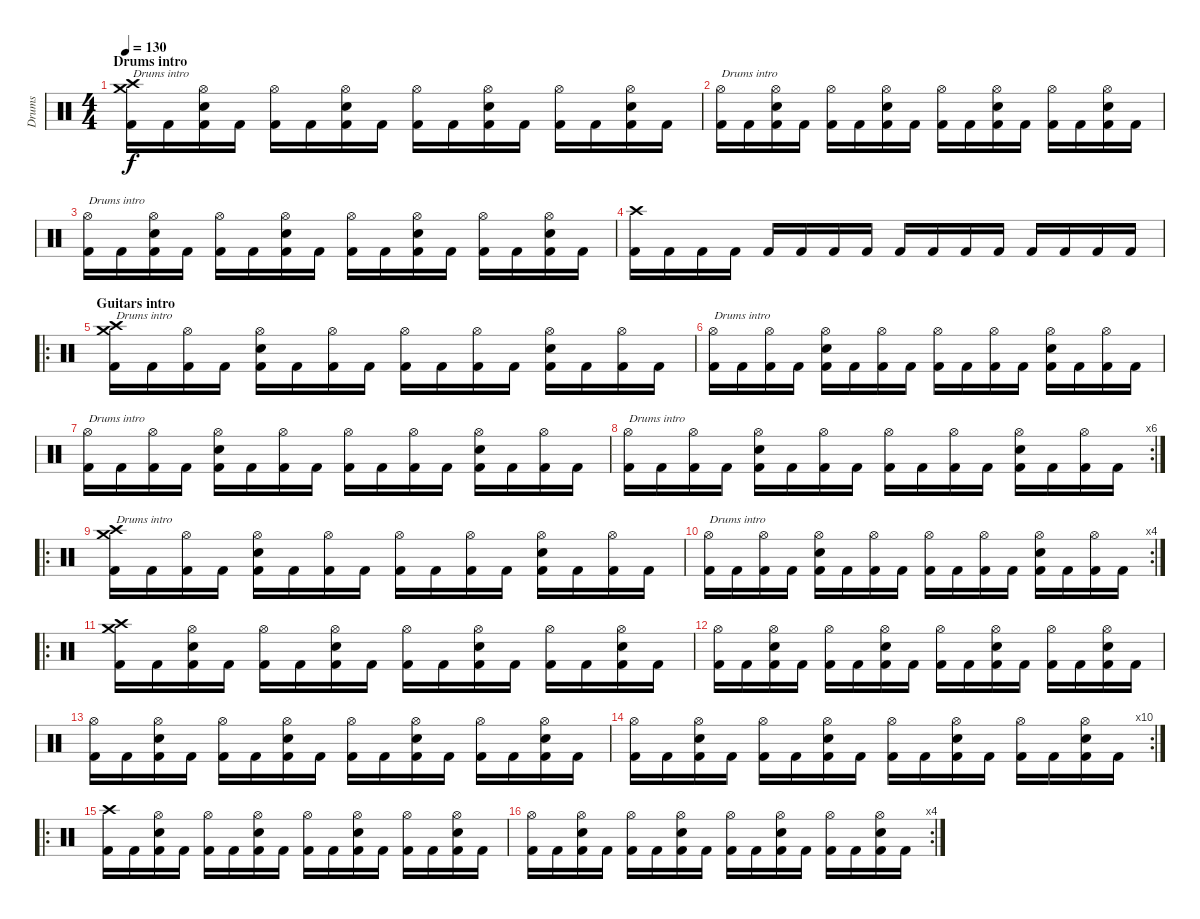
\track ("Drums" "Drums") {instrument percussion}
\staff {score}
\articulation defaults
\ts (4 4)
\section ("" "Drums intro")
\tempo 130
\clef neutral
\ks c
("Crash high (hit)" "Kick (hit) 2" "Crash medium (hit)").16{txt "Drums intro" dy f} "Kick (hit) 2".16 ("Kick (hit) 2" "Hi-Hat (open)" "Snare (hit) 2").16 "Kick (hit) 2".16 ("Kick (hit) 2" "Hi-Hat (open)").16 "Kick (hit) 2".16 ("Kick (hit) 2" "Hi-Hat (open)" "Snare (hit) 2").16 "Kick (hit) 2".16 ("Kick (hit) 2" "Hi-Hat (open)").16 "Kick (hit) 2".16 ("Kick (hit) 2" "Hi-Hat (open)" "Snare (hit) 2").16 "Kick (hit) 2".16 ("Kick (hit) 2" "Hi-Hat (open)").16 "Kick (hit) 2".16 ("Kick (hit) 2" "Hi-Hat (open)" "Snare (hit) 2").16 "Kick (hit) 2".16 |
("Kick (hit) 2" "Hi-Hat (open)").16{txt "Drums intro"} "Kick (hit) 2".16 ("Kick (hit) 2" "Hi-Hat (open)" "Snare (hit) 2").16 "Kick (hit) 2".16 ("Kick (hit) 2" "Hi-Hat (open)").16 "Kick (hit) 2".16 ("Kick (hit) 2" "Hi-Hat (open)" "Snare (hit) 2").16 "Kick (hit) 2".16 ("Kick (hit) 2" "Hi-Hat (open)").16 "Kick (hit) 2".16 ("Kick (hit) 2" "Hi-Hat (open)" "Snare (hit) 2").16 "Kick (hit) 2".16 ("Kick (hit) 2" "Hi-Hat (open)").16 "Kick (hit) 2".16 ("Kick (hit) 2" "Hi-Hat (open)" "Snare (hit) 2").16 "Kick (hit) 2".16 |
("Kick (hit) 2" "Hi-Hat (open)").16{txt "Drums intro"} "Kick (hit) 2".16 ("Kick (hit) 2" "Hi-Hat (open)" "Snare (hit) 2").16 "Kick (hit) 2".16 ("Kick (hit) 2" "Hi-Hat (open)").16 "Kick (hit) 2".16 ("Kick (hit) 2" "Hi-Hat (open)" "Snare (hit) 2").16 "Kick (hit) 2".16 ("Kick (hit) 2" "Hi-Hat (open)").16 "Kick (hit) 2".16 ("Kick (hit) 2" "Hi-Hat (open)" "Snare (hit) 2").16 "Kick (hit) 2".16 ("Kick (hit) 2" "Hi-Hat (open)").16 "Kick (hit) 2".16 ("Kick (hit) 2" "Hi-Hat (open)" "Snare (hit) 2").16 "Kick (hit) 2".16 |
("Crash high (hit)" "Kick (hit) 2").16 "Kick (hit) 2".16 "Kick (hit) 2".16 "Kick (hit) 2".16 "Kick (hit) 2".16 "Kick (hit) 2".16 "Kick (hit) 2".16 "Kick (hit) 2".16 "Kick (hit) 2".16 "Kick (hit) 2".16 "Kick (hit) 2".16 "Kick (hit) 2".16 "Kick (hit) 2".16 "Kick (hit) 2".16 "Kick (hit) 2".16 "Kick (hit) 2".16 |
\ro
\section ("" "Guitars intro")
("Crash high (hit)" "Kick (hit) 2" "Crash medium (hit)").16{txt "Drums intro"} "Kick (hit) 2".16 ("Kick (hit) 2" "Hi-Hat (open)").16 "Kick (hit) 2".16 ("Kick (hit) 2" "Hi-Hat (open)" "Snare (hit) 2").16 "Kick (hit) 2".16 ("Kick (hit) 2" "Hi-Hat (open)").16 "Kick (hit) 2".16 ("Kick (hit) 2" "Hi-Hat (open)").16 "Kick (hit) 2".16 ("Kick (hit) 2" "Hi-Hat (open)").16 "Kick (hit) 2".16 ("Kick (hit) 2" "Hi-Hat (open)" "Snare (hit) 2").16 "Kick (hit) 2".16 ("Kick (hit) 2" "Hi-Hat (open)").16 "Kick (hit) 2".16 |
("Kick (hit) 2" "Hi-Hat (open)").16{txt "Drums intro"} "Kick (hit) 2".16 ("Kick (hit) 2" "Hi-Hat (open)").16 "Kick (hit) 2".16 ("Kick (hit) 2" "Hi-Hat (open)" "Snare (hit) 2").16 "Kick (hit) 2".16 ("Kick (hit) 2" "Hi-Hat (open)").16 "Kick (hit) 2".16 ("Kick (hit) 2" "Hi-Hat (open)").16 "Kick (hit) 2".16 ("Kick (hit) 2" "Hi-Hat (open)").16 "Kick (hit) 2".16 ("Kick (hit) 2" "Hi-Hat (open)" "Snare (hit) 2").16 "Kick (hit) 2".16 ("Kick (hit) 2" "Hi-Hat (open)").16 "Kick (hit) 2".16 |
("Kick (hit) 2" "Hi-Hat (open)").16{txt "Drums intro"} "Kick (hit) 2".16 ("Kick (hit) 2" "Hi-Hat (open)").16 "Kick (hit) 2".16 ("Kick (hit) 2" "Hi-Hat (open)" "Snare (hit) 2").16 "Kick (hit) 2".16 ("Kick (hit) 2" "Hi-Hat (open)").16 "Kick (hit) 2".16 ("Kick (hit) 2" "Hi-Hat (open)").16 "Kick (hit) 2".16 ("Kick (hit) 2" "Hi-Hat (open)").16 "Kick (hit) 2".16 ("Kick (hit) 2" "Hi-Hat (open)" "Snare (hit) 2").16 "Kick (hit) 2".16 ("Kick (hit) 2" "Hi-Hat (open)").16 "Kick (hit) 2".16 |
\rc 6
("Kick (hit) 2" "Hi-Hat (open)").16{txt "Drums intro"} "Kick (hit) 2".16 ("Kick (hit) 2" "Hi-Hat (open)").16 "Kick (hit) 2".16 ("Kick (hit) 2" "Hi-Hat (open)" "Snare (hit) 2").16 "Kick (hit) 2".16 ("Kick (hit) 2" "Hi-Hat (open)").16 "Kick (hit) 2".16 ("Kick (hit) 2" "Hi-Hat (open)").16 "Kick (hit) 2".16 ("Kick (hit) 2" "Hi-Hat (open)").16 "Kick (hit) 2".16 ("Kick (hit) 2" "Hi-Hat (open)" "Snare (hit) 2").16 "Kick (hit) 2".16 ("Kick (hit) 2" "Hi-Hat (open)").16 "Kick (hit) 2".16 |
\ro
("Crash high (hit)" "Kick (hit) 2" "Crash medium (hit)").16{txt "Drums intro"} "Kick (hit) 2".16 ("Kick (hit) 2" "Hi-Hat (open)").16 "Kick (hit) 2".16 ("Kick (hit) 2" "Hi-Hat (open)" "Snare (hit) 2").16 "Kick (hit) 2".16 ("Kick (hit) 2" "Hi-Hat (open)").16 "Kick (hit) 2".16 ("Kick (hit) 2" "Hi-Hat (open)").16 "Kick (hit) 2".16 ("Kick (hit) 2" "Hi-Hat (open)").16 "Kick (hit) 2".16 ("Kick (hit) 2" "Hi-Hat (open)" "Snare (hit) 2").16 "Kick (hit) 2".16 ("Kick (hit) 2" "Hi-Hat (open)").16 "Kick (hit) 2".16 |
\rc 4
("Kick (hit) 2" "Hi-Hat (open)").16{txt "Drums intro"} "Kick (hit) 2".16 ("Kick (hit) 2" "Hi-Hat (open)").16 "Kick (hit) 2".16 ("Kick (hit) 2" "Hi-Hat (open)" "Snare (hit) 2").16 "Kick (hit) 2".16 ("Kick (hit) 2" "Hi-Hat (open)").16 "Kick (hit) 2".16 ("Kick (hit) 2" "Hi-Hat (open)").16 "Kick (hit) 2".16 ("Kick (hit) 2" "Hi-Hat (open)").16 "Kick (hit) 2".16 ("Kick (hit) 2" "Hi-Hat (open)" "Snare (hit) 2").16 "Kick (hit) 2".16 ("Kick (hit) 2" "Hi-Hat (open)").16 "Kick (hit) 2".16 |
\ro
("Kick (hit) 2" "Crash medium (hit)" "Crash high (hit)").16 "Kick (hit) 2".16 ("Kick (hit) 2" "Hi-Hat (open)" "Snare (hit) 2").16 "Kick (hit) 2".16 ("Kick (hit) 2" "Hi-Hat (open)").16 "Kick (hit) 2".16 ("Kick (hit) 2" "Hi-Hat (open)" "Snare (hit) 2").16 "Kick (hit) 2".16 ("Kick (hit) 2" "Hi-Hat (open)").16 "Kick (hit) 2".16 ("Kick (hit) 2" "Hi-Hat (open)" "Snare (hit) 2").16 "Kick (hit) 2".16 ("Kick (hit) 2" "Hi-Hat (open)").16 "Kick (hit) 2".16 ("Kick (hit) 2" "Hi-Hat (open)" "Snare (hit) 2").16 "Kick (hit) 2".16 |
("Kick (hit) 2" "Hi-Hat (open)").16 "Kick (hit) 2".16 ("Kick (hit) 2" "Hi-Hat (open)" "Snare (hit) 2").16 "Kick (hit) 2".16 ("Kick (hit) 2" "Hi-Hat (open)").16 "Kick (hit) 2".16 ("Kick (hit) 2" "Hi-Hat (open)" "Snare (hit) 2").16 "Kick (hit) 2".16 ("Kick (hit) 2" "Hi-Hat (open)").16 "Kick (hit) 2".16 ("Kick (hit) 2" "Hi-Hat (open)" "Snare (hit) 2").16 "Kick (hit) 2".16 ("Kick (hit) 2" "Hi-Hat (open)").16 "Kick (hit) 2".16 ("Kick (hit) 2" "Hi-Hat (open)" "Snare (hit) 2").16 "Kick (hit) 2".16 |
("Kick (hit) 2" "Hi-Hat (open)").16 "Kick (hit) 2".16 ("Kick (hit) 2" "Hi-Hat (open)" "Snare (hit) 2").16 "Kick (hit) 2".16 ("Kick (hit) 2" "Hi-Hat (open)").16 "Kick (hit) 2".16 ("Kick (hit) 2" "Hi-Hat (open)" "Snare (hit) 2").16 "Kick (hit) 2".16 ("Kick (hit) 2" "Hi-Hat (open)").16 "Kick (hit) 2".16 ("Kick (hit) 2" "Hi-Hat (open)" "Snare (hit) 2").16 "Kick (hit) 2".16 ("Kick (hit) 2" "Hi-Hat (open)").16 "Kick (hit) 2".16 ("Kick (hit) 2" "Hi-Hat (open)" "Snare (hit) 2").16 "Kick (hit) 2".16 |
\rc 10
("Kick (hit) 2" "Hi-Hat (open)").16 "Kick (hit) 2".16 ("Kick (hit) 2" "Hi-Hat (open)" "Snare (hit) 2").16 "Kick (hit) 2".16 ("Kick (hit) 2" "Hi-Hat (open)").16 "Kick (hit) 2".16 ("Kick (hit) 2" "Hi-Hat (open)" "Snare (hit) 2").16 "Kick (hit) 2".16 ("Kick (hit) 2" "Hi-Hat (open)").16 "Kick (hit) 2".16 ("Kick (hit) 2" "Hi-Hat (open)" "Snare (hit) 2").16 "Kick (hit) 2".16 ("Kick (hit) 2" "Hi-Hat (open)").16 "Kick (hit) 2".16 ("Kick (hit) 2" "Hi-Hat (open)" "Snare (hit) 2").16 "Kick (hit) 2".16 |
\ro
("Kick (hit) 2" "Crash high (hit)").16 "Kick (hit) 2".16 ("Kick (hit) 2" "Hi-Hat (open)" "Snare (hit) 2").16 "Kick (hit) 2".16 ("Kick (hit) 2" "Hi-Hat (open)").16 "Kick (hit) 2".16 ("Kick (hit) 2" "Hi-Hat (open)" "Snare (hit) 2").16 "Kick (hit) 2".16 ("Kick (hit) 2" "Hi-Hat (open)").16 "Kick (hit) 2".16 ("Kick (hit) 2" "Hi-Hat (open)" "Snare (hit) 2").16 "Kick (hit) 2".16 ("Kick (hit) 2" "Hi-Hat (open)").16 "Kick (hit) 2".16 ("Kick (hit) 2" "Hi-Hat (open)" "Snare (hit) 2").16 "Kick (hit) 2".16 |
\rc 4
("Kick (hit) 2" "Hi-Hat (open)").16 "Kick (hit) 2".16 ("Kick (hit) 2" "Hi-Hat (open)" "Snare (hit) 2").16 "Kick (hit) 2".16 ("Kick (hit) 2" "Hi-Hat (open)").16 "Kick (hit) 2".16 ("Kick (hit) 2" "Hi-Hat (open)" "Snare (hit) 2").16 "Kick (hit) 2".16 ("Kick (hit) 2" "Hi-Hat (open)").16 "Kick (hit) 2".16 ("Kick (hit) 2" "Hi-Hat (open)" "Snare (hit) 2").16 "Kick (hit) 2".16 ("Kick (hit) 2" "Hi-Hat (open)").16 "Kick (hit) 2".16 ("Kick (hit) 2" "Hi-Hat (open)" "Snare (hit) 2").16 "Kick (hit) 2".16
